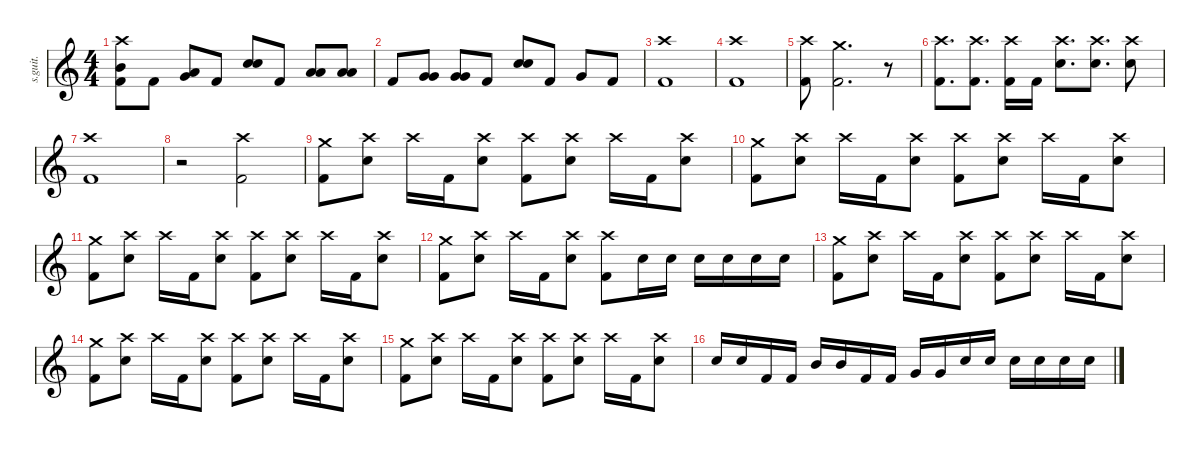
\defaultSystemsLayout 4
\hideDynamics
\bracketExtendMode nobrackets
\track ("Track 4" "s.guit.") {instrument percussion}
\staff {score}
\articulation defaults
\ts (4 4)
\beaming (8 2 2 2 2)
\tempo (163 hide)
\clef g2
\ks c
("Crash high (hit)" "Mid Tom (hit)" "Kick (hit) 2").8{dy f} "Kick (hit) 2".8 ("Low Tom (hit)" "Very Low Tom (hit)").8 "Kick (hit) 2".8 ("Snare (hit) 2" "Snare (hit) 2").8 "Kick (hit) 2".8 ("Low Tom (hit)" "Low Tom (hit)").8 ("Low Tom (hit)" "Low Tom (hit)").8 |
"Kick (hit) 2".8 ("Very Low Tom (hit)" "Very Low Tom (hit)").8 ("Very Low Tom (hit)" "Very Low Tom (hit)").8 "Kick (hit) 2".8 ("Snare (hit) 2" "Snare (hit) 2").8 "Kick (hit) 2".8 "Very Low Tom (hit)".8 "Kick (hit) 2".8 |
("Crash high (hit)" "Kick (hit) 2").1 |
("Crash high (hit)" "Kick (hit) 2").1 |
("Crash high (hit)" "Kick (hit) 2").8 ("Crash medium (hit)" "Kick (hit) 2").2{d} r.8 |
("Crash high (hit)" "Kick (hit) 2").8{d} ("Crash high (hit)" "Kick (hit) 2").8{d} ("Crash high (hit)" "Kick (hit) 2").16 "Kick (hit) 2".16 ("Crash high (hit)" "Snare (hit) 2").8{d} ("Crash high (hit)" "Snare (hit) 2").8{d} ("Crash high (hit)" "Snare (hit) 2").8 |
("Crash high (hit)" "Kick (hit) 2").1 |
r.2 ("Crash high (hit)" "Kick (hit) 2").2 |
("Crash medium (hit)" "Kick (hit) 2").8 ("Crash high (hit)" "Snare (hit) 2").8 "Crash high (hit)".16 "Kick (hit) 2".16 ("Crash high (hit)" "Snare (hit) 2").8 ("Crash high (hit)" "Kick (hit) 2").8 ("Crash high (hit)" "Snare (hit) 2").8 "Crash high (hit)".16 "Kick (hit) 2".16 ("Crash high (hit)" "Snare (hit) 2").8 |
("Crash medium (hit)" "Kick (hit) 2").8 ("Crash high (hit)" "Snare (hit) 2").8 "Crash high (hit)".16 "Kick (hit) 2".16 ("Crash high (hit)" "Snare (hit) 2").8 ("Crash high (hit)" "Kick (hit) 2").8 ("Crash high (hit)" "Snare (hit) 2").8 "Crash high (hit)".16 "Kick (hit) 2".16 ("Crash high (hit)" "Snare (hit) 2").8 |
("Crash medium (hit)" "Kick (hit) 2").8 ("Crash high (hit)" "Snare (hit) 2").8 "Crash high (hit)".16 "Kick (hit) 2".16 ("Crash high (hit)" "Snare (hit) 2").8 ("Crash high (hit)" "Kick (hit) 2").8 ("Crash high (hit)" "Snare (hit) 2").8 "Crash high (hit)".16 "Kick (hit) 2".16 ("Crash high (hit)" "Snare (hit) 2").8 |
("Crash medium (hit)" "Kick (hit) 2").8 ("Crash high (hit)" "Snare (hit) 2").8 "Crash high (hit)".16 "Kick (hit) 2".16 ("Crash high (hit)" "Snare (hit) 2").8 ("Crash high (hit)" "Kick (hit) 2").8 "Snare (hit) 2".16 "Snare (hit) 2".16 "Snare (hit) 2".16 "Snare (hit) 2".16 "Snare (hit) 2".16 "Snare (hit) 2".16 |
("Crash medium (hit)" "Kick (hit) 2").8 ("Crash high (hit)" "Snare (hit) 2").8 "Crash high (hit)".16 "Kick (hit) 2".16 ("Crash high (hit)" "Snare (hit) 2").8 ("Crash high (hit)" "Kick (hit) 2").8 ("Crash high (hit)" "Snare (hit) 2").8 "Crash high (hit)".16 "Kick (hit) 2".16 ("Crash high (hit)" "Snare (hit) 2").8 |
("Crash medium (hit)" "Kick (hit) 2").8 ("Crash high (hit)" "Snare (hit) 2").8 "Crash high (hit)".16 "Kick (hit) 2".16 ("Crash high (hit)" "Snare (hit) 2").8 ("Crash high (hit)" "Kick (hit) 2").8 ("Crash high (hit)" "Snare (hit) 2").8 "Crash high (hit)".16 "Kick (hit) 2".16 ("Crash high (hit)" "Snare (hit) 2").8 |
("Crash medium (hit)" "Kick (hit) 2").8 ("Crash high (hit)" "Snare (hit) 2").8 "Crash high (hit)".16 "Kick (hit) 2".16 ("Crash high (hit)" "Snare (hit) 2").8 ("Crash high (hit)" "Kick (hit) 2").8 ("Crash high (hit)" "Snare (hit) 2").8 "Crash high (hit)".16 "Kick (hit) 2".16 ("Crash high (hit)" "Snare (hit) 2").8 |
"Snare (hit) 2".16 "Snare (hit) 2".16 "Kick (hit) 2".16 "Kick (hit) 2".16 "Mid Tom (hit)".16 "Mid Tom (hit)".16 "Kick (hit) 2".16 "Kick (hit) 2".16 "Very Low Tom (hit)".16 "Very Low Tom (hit)".16 "Snare (hit) 2".16 "Snare (hit) 2".16 "Snare (hit) 2".16 "Snare (hit) 2".16 "Snare (hit) 2".16 "Snare (hit) 2".16
